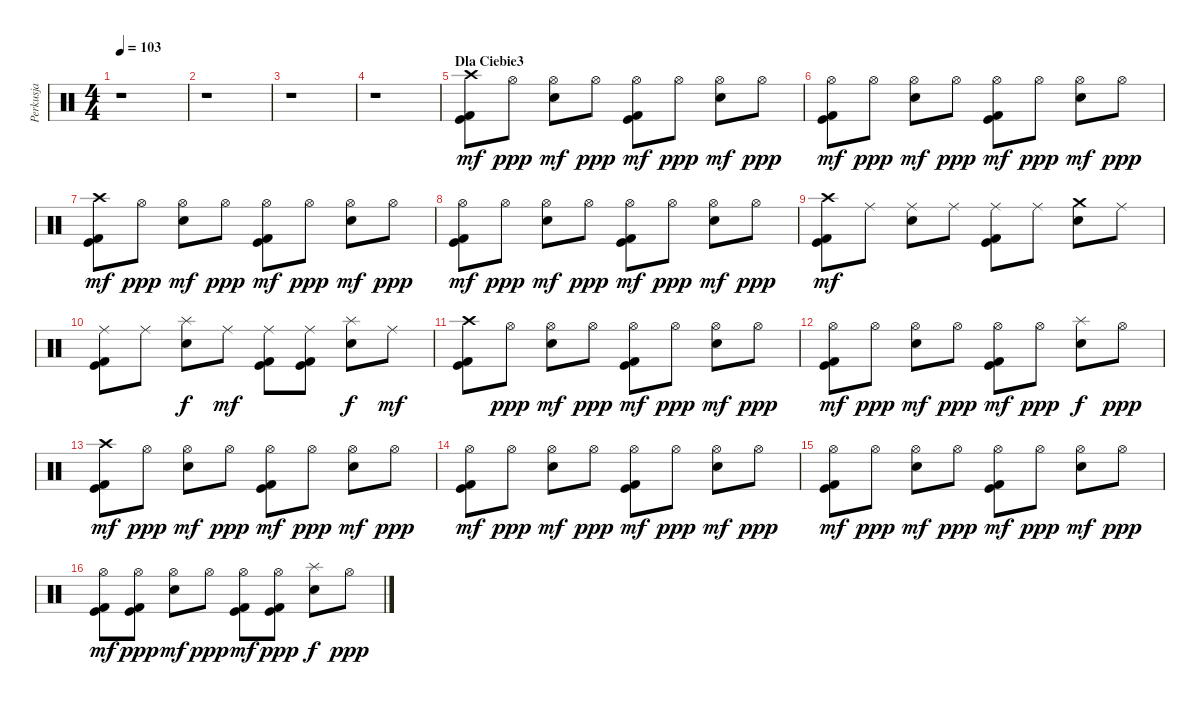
\track ("Perkusja" "Perkusja") {instrument percussion}
\staff {score}
\articulation defaults
\ts (4 4)
\tempo 103
\clef neutral
\ks c
r.1{dy mf} |
r.1 |
r.1 |
r.1 |
\section ("" "Dla Ciebie3")
("Kick (hit) 2" "Kick (hit)" "Crash high (hit)").8 "Hi-Hat (open)".8{dy ppp} ("Snare (hit) 2" "Hi-Hat (open)").8{dy mf} "Hi-Hat (open)".8{dy ppp} ("Kick (hit) 2" "Kick (hit)" "Hi-Hat (open)").8{dy mf} "Hi-Hat (open)".8{dy ppp} ("Snare (hit) 2" "Hi-Hat (open)").8{dy mf} "Hi-Hat (open)".8{dy ppp} |
("Kick (hit) 2" "Kick (hit)" "Hi-Hat (open)").8{dy mf} "Hi-Hat (open)".8{dy ppp} ("Snare (hit) 2" "Hi-Hat (open)").8{dy mf} "Hi-Hat (open)".8{dy ppp} ("Kick (hit) 2" "Kick (hit)" "Hi-Hat (open)").8{dy mf} "Hi-Hat (open)".8{dy ppp} ("Snare (hit) 2" "Hi-Hat (open)").8{dy mf} "Hi-Hat (open)".8{dy ppp} |
("Kick (hit) 2" "Kick (hit)" "Crash high (hit)").8{dy mf} "Hi-Hat (open)".8{dy ppp} ("Snare (hit) 2" "Hi-Hat (open)").8{dy mf} "Hi-Hat (open)".8{dy ppp} ("Kick (hit) 2" "Kick (hit)" "Hi-Hat (open)").8{dy mf} "Hi-Hat (open)".8{dy ppp} ("Snare (hit) 2" "Hi-Hat (open)").8{dy mf} "Hi-Hat (open)".8{dy ppp} |
("Kick (hit) 2" "Kick (hit)" "Hi-Hat (open)").8{dy mf} "Hi-Hat (open)".8{dy ppp} ("Snare (hit) 2" "Hi-Hat (open)").8{dy mf} "Hi-Hat (open)".8{dy ppp} ("Kick (hit) 2" "Kick (hit)" "Hi-Hat (open)").8{dy mf} "Hi-Hat (open)".8{dy ppp} ("Snare (hit) 2" "Hi-Hat (open)").8{dy mf} "Hi-Hat (open)".8{dy ppp} |
("Kick (hit) 2" "Kick (hit)" "Crash high (hit)").8{dy mf} "Ride (middle)".8 ("Snare (hit) 2" "Ride (middle)").8 "Ride (middle)".8 ("Kick (hit) 2" "Kick (hit)" "Ride (middle)").8 "Ride (middle)".8 ("Snare (hit) 2" "Crash medium (hit)").8 "Ride (middle)".8 |
("Kick (hit) 2" "Kick (hit)" "Ride (middle)").8 "Ride (middle)".8 ("Snare (hit) 2" "Splash (hit)").8{dy f} "Ride (middle)".8{dy mf} ("Kick (hit) 2" "Kick (hit)" "Ride (middle)").8 ("Kick (hit) 2" "Kick (hit)" "Ride (middle)").8 ("Snare (hit) 2" "Splash (hit)").8{dy f} "Ride (middle)".8{dy mf} |
("Kick (hit) 2" "Kick (hit)" "Crash high (hit)").8 "Hi-Hat (open)".8{dy ppp} ("Snare (hit) 2" "Hi-Hat (open)").8{dy mf} "Hi-Hat (open)".8{dy ppp} ("Kick (hit) 2" "Kick (hit)" "Hi-Hat (open)").8{dy mf} "Hi-Hat (open)".8{dy ppp} ("Snare (hit) 2" "Hi-Hat (open)").8{dy mf} "Hi-Hat (open)".8{dy ppp} |
("Kick (hit) 2" "Kick (hit)" "Hi-Hat (open)").8{dy mf} "Hi-Hat (open)".8{dy ppp} ("Snare (hit) 2" "Hi-Hat (open)").8{dy mf} "Hi-Hat (open)".8{dy ppp} ("Kick (hit) 2" "Kick (hit)" "Hi-Hat (open)").8{dy mf} "Hi-Hat (open)".8{dy ppp} ("Snare (hit) 2" "Splash (hit)").8{dy f} "Hi-Hat (open)".8{dy ppp} |
("Kick (hit) 2" "Kick (hit)" "Crash high (hit)").8{dy mf} "Hi-Hat (open)".8{dy ppp} ("Snare (hit) 2" "Hi-Hat (open)").8{dy mf} "Hi-Hat (open)".8{dy ppp} ("Kick (hit) 2" "Kick (hit)" "Hi-Hat (open)").8{dy mf} "Hi-Hat (open)".8{dy ppp} ("Snare (hit) 2" "Hi-Hat (open)").8{dy mf} "Hi-Hat (open)".8{dy ppp} |
("Kick (hit) 2" "Kick (hit)" "Hi-Hat (open)").8{dy mf} "Hi-Hat (open)".8{dy ppp} ("Snare (hit) 2" "Hi-Hat (open)").8{dy mf} "Hi-Hat (open)".8{dy ppp} ("Kick (hit) 2" "Kick (hit)" "Hi-Hat (open)").8{dy mf} "Hi-Hat (open)".8{dy ppp} ("Snare (hit) 2" "Hi-Hat (open)").8{dy mf} "Hi-Hat (open)".8{dy ppp} |
("Kick (hit) 2" "Kick (hit)" "Hi-Hat (open)").8{dy mf} "Hi-Hat (open)".8{dy ppp} ("Snare (hit) 2" "Hi-Hat (open)").8{dy mf} "Hi-Hat (open)".8{dy ppp} ("Kick (hit) 2" "Kick (hit)" "Hi-Hat (open)").8{dy mf} "Hi-Hat (open)".8{dy ppp} ("Snare (hit) 2" "Hi-Hat (open)").8{dy mf} "Hi-Hat (open)".8{dy ppp} |
("Kick (hit) 2" "Kick (hit)" "Hi-Hat (open)").8{dy mf} ("Kick (hit) 2" "Kick (hit)" "Hi-Hat (open)").8{dy ppp} ("Snare (hit) 2" "Hi-Hat (open)").8{dy mf} "Hi-Hat (open)".8{dy ppp} ("Kick (hit) 2" "Kick (hit)" "Hi-Hat (open)").8{dy mf} ("Kick (hit)" "Kick (hit) 2" "Hi-Hat (open)").8{dy ppp} ("Snare (hit) 2" "Splash (hit)").8{dy f} "Hi-Hat (open)".8{dy ppp}
